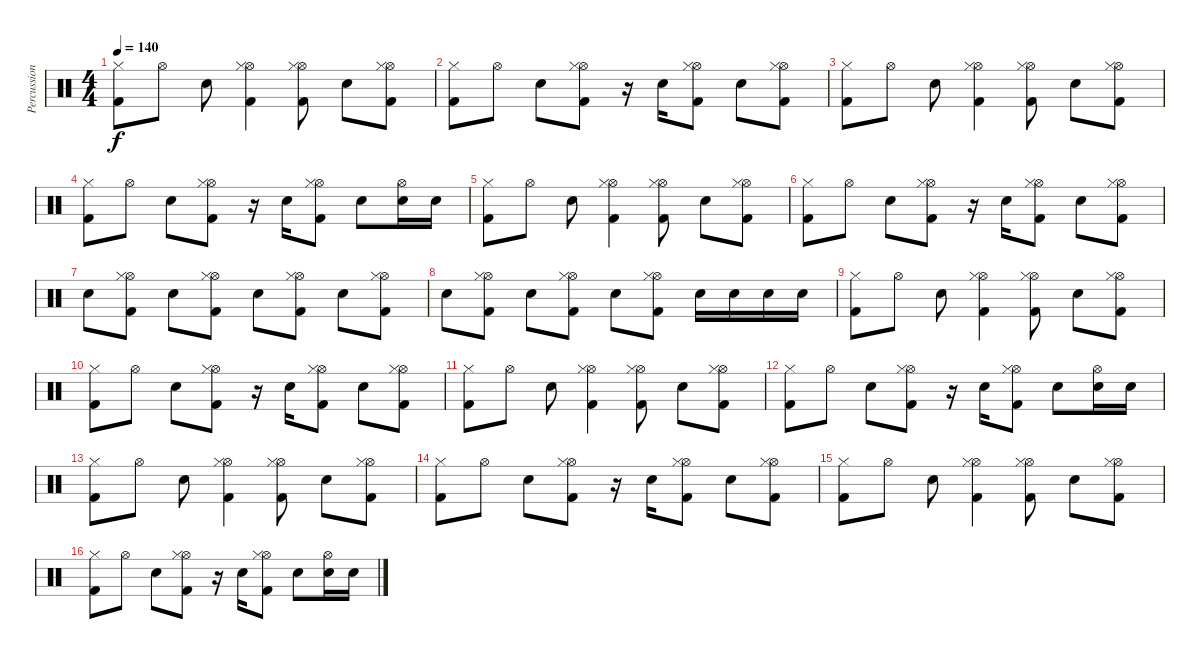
\track ("Percussion" "Percussion") {instrument percussion}
\staff {score}
\articulation defaults
\ts (4 4)
\tempo 140
\clef neutral
\ks c
("Kick (hit) 2" "Hi-Hat (closed)").8{dy f} "Hi-Hat (open)".8 "Snare (hit) 2".8 ("Kick (hit) 2" "Hi-Hat (open)" "Hi-Hat (closed)").4 ("Kick (hit) 2" "Hi-Hat (open)" "Hi-Hat (closed)").8 "Snare (hit) 2".8 ("Kick (hit) 2" "Hi-Hat (open)" "Hi-Hat (closed)").8 |
("Kick (hit) 2" "Hi-Hat (closed)").8 "Hi-Hat (open)".8 "Snare (hit) 2".8 ("Kick (hit) 2" "Hi-Hat (open)" "Hi-Hat (closed)").8 r.16 "Snare (hit) 2".16 ("Kick (hit) 2" "Hi-Hat (open)" "Hi-Hat (closed)").8 "Snare (hit) 2".8 ("Kick (hit) 2" "Hi-Hat (open)" "Hi-Hat (closed)").8 |
("Kick (hit) 2" "Hi-Hat (closed)").8 "Hi-Hat (open)".8 "Snare (hit) 2".8 ("Kick (hit) 2" "Hi-Hat (open)" "Hi-Hat (closed)").4 ("Kick (hit) 2" "Hi-Hat (open)" "Hi-Hat (closed)").8 "Snare (hit) 2".8 ("Kick (hit) 2" "Hi-Hat (open)" "Hi-Hat (closed)").8 |
("Kick (hit) 2" "Hi-Hat (closed)").8 "Hi-Hat (open)".8 "Snare (hit) 2".8 ("Kick (hit) 2" "Hi-Hat (open)" "Hi-Hat (closed)").8 r.16 "Snare (hit) 2".16 ("Kick (hit) 2" "Hi-Hat (open)" "Hi-Hat (closed)").8 "Snare (hit) 2".8 ("Snare (hit) 2" "Hi-Hat (open)").16 "Snare (hit) 2".16 |
("Kick (hit) 2" "Hi-Hat (closed)").8 "Hi-Hat (open)".8 "Snare (hit) 2".8 ("Kick (hit) 2" "Hi-Hat (open)" "Hi-Hat (closed)").4 ("Kick (hit) 2" "Hi-Hat (open)" "Hi-Hat (closed)").8 "Snare (hit) 2".8 ("Kick (hit) 2" "Hi-Hat (open)" "Hi-Hat (closed)").8 |
("Kick (hit) 2" "Hi-Hat (closed)").8 "Hi-Hat (open)".8 "Snare (hit) 2".8 ("Kick (hit) 2" "Hi-Hat (open)" "Hi-Hat (closed)").8 r.16 "Snare (hit) 2".16 ("Kick (hit) 2" "Hi-Hat (open)" "Hi-Hat (closed)").8 "Snare (hit) 2".8 ("Kick (hit) 2" "Hi-Hat (open)" "Hi-Hat (closed)").8 |
"Snare (hit) 2".8 ("Kick (hit) 2" "Hi-Hat (open)" "Hi-Hat (closed)").8 "Snare (hit) 2".8 ("Kick (hit) 2" "Hi-Hat (open)" "Hi-Hat (closed)").8 "Snare (hit) 2".8 ("Kick (hit) 2" "Hi-Hat (open)" "Hi-Hat (closed)").8 "Snare (hit) 2".8 ("Kick (hit) 2" "Hi-Hat (open)" "Hi-Hat (closed)").8 |
"Snare (hit) 2".8 ("Kick (hit) 2" "Hi-Hat (open)" "Hi-Hat (closed)").8 "Snare (hit) 2".8 ("Kick (hit) 2" "Hi-Hat (open)" "Hi-Hat (closed)").8 "Snare (hit) 2".8 ("Kick (hit) 2" "Hi-Hat (open)" "Hi-Hat (closed)").8 "Snare (hit) 2".16 "Snare (hit) 2".16 "Snare (hit) 2".16 "Snare (hit) 2".16 |
("Kick (hit) 2" "Hi-Hat (closed)").8 "Hi-Hat (open)".8 "Snare (hit) 2".8 ("Kick (hit) 2" "Hi-Hat (open)" "Hi-Hat (closed)").4 ("Kick (hit) 2" "Hi-Hat (open)" "Hi-Hat (closed)").8 "Snare (hit) 2".8 ("Kick (hit) 2" "Hi-Hat (open)" "Hi-Hat (closed)").8 |
("Kick (hit) 2" "Hi-Hat (closed)").8 "Hi-Hat (open)".8 "Snare (hit) 2".8 ("Kick (hit) 2" "Hi-Hat (open)" "Hi-Hat (closed)").8 r.16 "Snare (hit) 2".16 ("Kick (hit) 2" "Hi-Hat (open)" "Hi-Hat (closed)").8 "Snare (hit) 2".8 ("Kick (hit) 2" "Hi-Hat (open)" "Hi-Hat (closed)").8 |
("Kick (hit) 2" "Hi-Hat (closed)").8 "Hi-Hat (open)".8 "Snare (hit) 2".8 ("Kick (hit) 2" "Hi-Hat (open)" "Hi-Hat (closed)").4 ("Kick (hit) 2" "Hi-Hat (open)" "Hi-Hat (closed)").8 "Snare (hit) 2".8 ("Kick (hit) 2" "Hi-Hat (open)" "Hi-Hat (closed)").8 |
("Kick (hit) 2" "Hi-Hat (closed)").8 "Hi-Hat (open)".8 "Snare (hit) 2".8 ("Kick (hit) 2" "Hi-Hat (open)" "Hi-Hat (closed)").8 r.16 "Snare (hit) 2".16 ("Kick (hit) 2" "Hi-Hat (open)" "Hi-Hat (closed)").8 "Snare (hit) 2".8 ("Snare (hit) 2" "Hi-Hat (open)").16 "Snare (hit) 2".16 |
("Kick (hit) 2" "Hi-Hat (closed)").8 "Hi-Hat (open)".8 "Snare (hit) 2".8 ("Kick (hit) 2" "Hi-Hat (open)" "Hi-Hat (closed)").4 ("Kick (hit) 2" "Hi-Hat (open)" "Hi-Hat (closed)").8 "Snare (hit) 2".8 ("Kick (hit) 2" "Hi-Hat (open)" "Hi-Hat (closed)").8 |
("Kick (hit) 2" "Hi-Hat (closed)").8 "Hi-Hat (open)".8 "Snare (hit) 2".8 ("Kick (hit) 2" "Hi-Hat (open)" "Hi-Hat (closed)").8 r.16 "Snare (hit) 2".16 ("Kick (hit) 2" "Hi-Hat (open)" "Hi-Hat (closed)").8 "Snare (hit) 2".8 ("Kick (hit) 2" "Hi-Hat (open)" "Hi-Hat (closed)").8 |
("Kick (hit) 2" "Hi-Hat (closed)").8 "Hi-Hat (open)".8 "Snare (hit) 2".8 ("Kick (hit) 2" "Hi-Hat (open)" "Hi-Hat (closed)").4 ("Kick (hit) 2" "Hi-Hat (open)" "Hi-Hat (closed)").8 "Snare (hit) 2".8 ("Kick (hit) 2" "Hi-Hat (open)" "Hi-Hat (closed)").8 |
("Kick (hit) 2" "Hi-Hat (closed)").8 "Hi-Hat (open)".8 "Snare (hit) 2".8 ("Kick (hit) 2" "Hi-Hat (open)" "Hi-Hat (closed)").8 r.16 "Snare (hit) 2".16 ("Kick (hit) 2" "Hi-Hat (open)" "Hi-Hat (closed)").8 "Snare (hit) 2".8 ("Snare (hit) 2" "Hi-Hat (open)").16 "Snare (hit) 2".16
